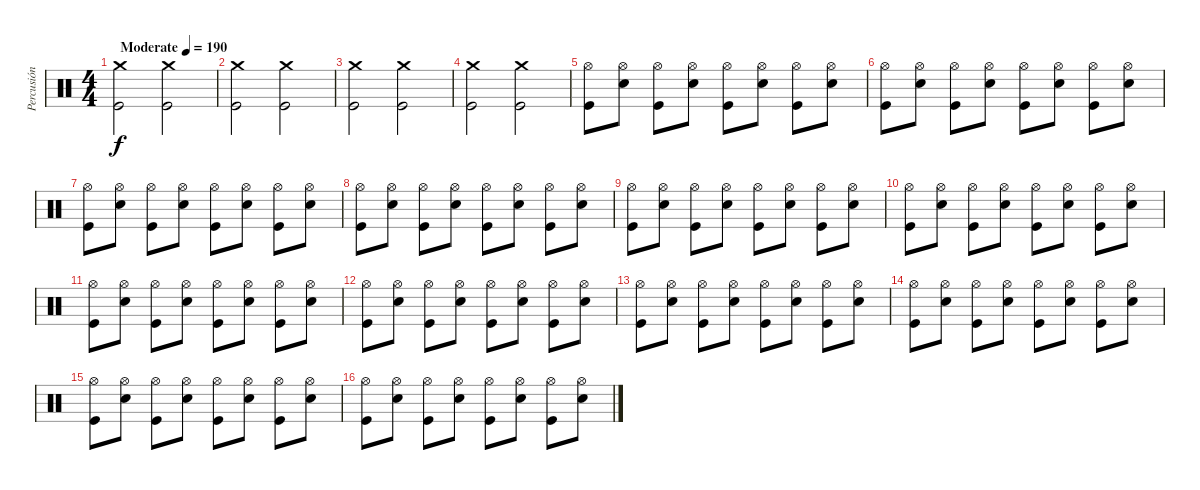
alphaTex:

\track ("Percusión" "Percusión") {instrument percussion}
\staff {score}
\articulation defaults
\ts (4 4)
\tempo (190 "Moderate")
\clef neutral
\ks c
("Crash medium (hit)" "Kick (hit)").2{dy f} ("Crash medium (hit)" "Kick (hit)").2 |
("Crash medium (hit)" "Kick (hit)").2 ("Crash medium (hit)" "Kick (hit)").2 |
("Crash medium (hit)" "Kick (hit)").2 ("Crash medium (hit)" "Kick (hit)").2 |
("Crash medium (hit)" "Kick (hit)").2 ("Crash medium (hit)" "Kick (hit)").2 |
("Hi-Hat (open)" "Kick (hit)").8 ("Hi-Hat (open)" "Snare (hit) 2").8 ("Hi-Hat (open)" "Kick (hit)").8 ("Hi-Hat (open)" "Snare (hit) 2").8 ("Hi-Hat (open)" "Kick (hit)").8 ("Hi-Hat (open)" "Snare (hit) 2").8 ("Hi-Hat (open)" "Kick (hit)").8 ("Hi-Hat (open)" "Snare (hit) 2").8 |
("Hi-Hat (open)" "Kick (hit)").8 ("Hi-Hat (open)" "Snare (hit) 2").8 ("Hi-Hat (open)" "Kick (hit)").8 ("Hi-Hat (open)" "Snare (hit) 2").8 ("Hi-Hat (open)" "Kick (hit)").8 ("Hi-Hat (open)" "Snare (hit) 2").8 ("Hi-Hat (open)" "Kick (hit)").8 ("Hi-Hat (open)" "Snare (hit) 2").8 |
("Hi-Hat (open)" "Kick (hit)").8 ("Hi-Hat (open)" "Snare (hit) 2").8 ("Hi-Hat (open)" "Kick (hit)").8 ("Hi-Hat (open)" "Snare (hit) 2").8 ("Hi-Hat (open)" "Kick (hit)").8 ("Hi-Hat (open)" "Snare (hit) 2").8 ("Hi-Hat (open)" "Kick (hit)").8 ("Hi-Hat (open)" "Snare (hit) 2").8 |
("Hi-Hat (open)" "Kick (hit)").8 ("Hi-Hat (open)" "Snare (hit) 2").8 ("Hi-Hat (open)" "Kick (hit)").8 ("Hi-Hat (open)" "Snare (hit) 2").8 ("Hi-Hat (open)" "Kick (hit)").8 ("Hi-Hat (open)" "Snare (hit) 2").8 ("Hi-Hat (open)" "Kick (hit)").8 ("Hi-Hat (open)" "Snare (hit) 2").8 |
("Hi-Hat (open)" "Kick (hit)").8 ("Hi-Hat (open)" "Snare (hit) 2").8 ("Hi-Hat (open)" "Kick (hit)").8 ("Hi-Hat (open)" "Snare (hit) 2").8 ("Hi-Hat (open)" "Kick (hit)").8 ("Hi-Hat (open)" "Snare (hit) 2").8 ("Hi-Hat (open)" "Kick (hit)").8 ("Hi-Hat (open)" "Snare (hit) 2").8 |
("Hi-Hat (open)" "Kick (hit)").8 ("Hi-Hat (open)" "Snare (hit) 2").8 ("Hi-Hat (open)" "Kick (hit)").8 ("Hi-Hat (open)" "Snare (hit) 2").8 ("Hi-Hat (open)" "Kick (hit)").8 ("Hi-Hat (open)" "Snare (hit) 2").8 ("Hi-Hat (open)" "Kick (hit)").8 ("Hi-Hat (open)" "Snare (hit) 2").8 |
("Hi-Hat (open)" "Kick (hit)").8 ("Hi-Hat (open)" "Snare (hit) 2").8 ("Hi-Hat (open)" "Kick (hit)").8 ("Hi-Hat (open)" "Snare (hit) 2").8 ("Hi-Hat (open)" "Kick (hit)").8 ("Hi-Hat (open)" "Snare (hit) 2").8 ("Hi-Hat (open)" "Kick (hit)").8 ("Hi-Hat (open)" "Snare (hit) 2").8 |
("Hi-Hat (open)" "Kick (hit)").8 ("Hi-Hat (open)" "Snare (hit) 2").8 ("Hi-Hat (open)" "Kick (hit)").8 ("Hi-Hat (open)" "Snare (hit) 2").8 ("Hi-Hat (open)" "Kick (hit)").8 ("Hi-Hat (open)" "Snare (hit) 2").8 ("Hi-Hat (open)" "Kick (hit)").8 ("Hi-Hat (open)" "Snare (hit) 2").8 |
("Hi-Hat (open)" "Kick (hit)").8 ("Hi-Hat (open)" "Snare (hit) 2").8 ("Hi-Hat (open)" "Kick (hit)").8 ("Hi-Hat (open)" "Snare (hit) 2").8 ("Hi-Hat (open)" "Kick (hit)").8 ("Hi-Hat (open)" "Snare (hit) 2").8 ("Hi-Hat (open)" "Kick (hit)").8 ("Hi-Hat (open)" "Snare (hit) 2").8 |
("Hi-Hat (open)" "Kick (hit)").8 ("Hi-Hat (open)" "Snare (hit) 2").8 ("Hi-Hat (open)" "Kick (hit)").8 ("Hi-Hat (open)" "Snare (hit) 2").8 ("Hi-Hat (open)" "Kick (hit)").8 ("Hi-Hat (open)" "Snare (hit) 2").8 ("Hi-Hat (open)" "Kick (hit)").8 ("Hi-Hat (open)" "Snare (hit) 2").8 |
("Hi-Hat (open)" "Kick (hit)").8 ("Hi-Hat (open)" "Snare (hit) 2").8 ("Hi-Hat (open)" "Kick (hit)").8 ("Hi-Hat (open)" "Snare (hit) 2").8 ("Hi-Hat (open)" "Kick (hit)").8 ("Hi-Hat (open)" "Snare (hit) 2").8 ("Hi-Hat (open)" "Kick (hit)").8 ("Hi-Hat (open)" "Snare (hit) 2").8 |
("Hi-Hat (open)" "Kick (hit)").8 ("Hi-Hat (open)" "Snare (hit) 2").8 ("Hi-Hat (open)" "Kick (hit)").8 ("Hi-Hat (open)" "Snare (hit) 2").8 ("Hi-Hat (open)" "Kick (hit)").8 ("Hi-Hat (open)" "Snare (hit) 2").8 ("Hi-Hat (open)" "Kick (hit)").8 ("Hi-Hat (open)" "Snare (hit) 2").8
